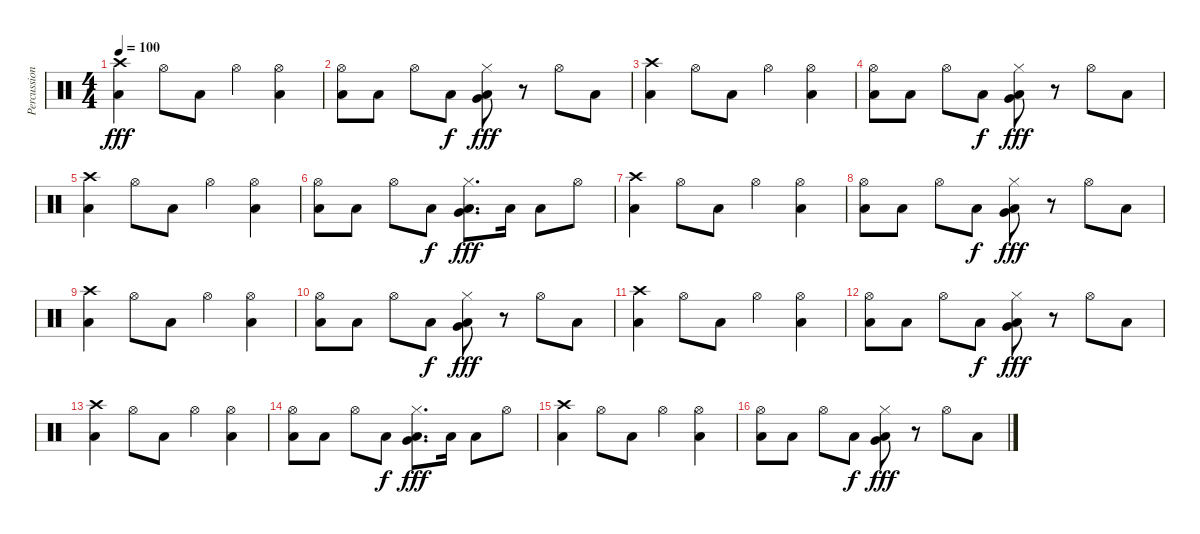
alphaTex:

\track ("Percussion" "Percussion") {instrument percussion}
\staff {score}
\articulation defaults
\ts (4 4)
\tempo 100
\clef neutral
\ks c
("Low Floor Tom (hit)" "Crash high (hit)").4{dy fff} "Hi-Hat (open)".8 "Low Tom (hit)".8 "Hi-Hat (open)".4 ("Low Floor Tom (hit)" "Hi-Hat (open)").4 |
("Low Tom (hit)" "Hi-Hat (open)").8 "Low Tom (hit)".8 "Hi-Hat (open)".8 "Low Floor Tom (hit)".8{dy f} ("Low Floor Tom (hit)" "Very Low Tom (hit)" "Hi-Hat (closed)").8{dy fff} r.8 "Hi-Hat (open)".8 "Low Tom (hit)".8 |
("Low Floor Tom (hit)" "Crash high (hit)").4 "Hi-Hat (open)".8 "Low Tom (hit)".8 "Hi-Hat (open)".4 ("Low Floor Tom (hit)" "Hi-Hat (open)").4 |
("Low Tom (hit)" "Hi-Hat (open)").8 "Low Tom (hit)".8 "Hi-Hat (open)".8 "Low Floor Tom (hit)".8{dy f} ("Low Floor Tom (hit)" "Very Low Tom (hit)" "Hi-Hat (closed)").8{dy fff} r.8 "Hi-Hat (open)".8 "Low Tom (hit)".8 |
("Low Floor Tom (hit)" "Crash high (hit)").4 "Hi-Hat (open)".8 "Low Tom (hit)".8 "Hi-Hat (open)".4 ("Low Floor Tom (hit)" "Hi-Hat (open)").4 |
("Low Tom (hit)" "Hi-Hat (open)").8 "Low Tom (hit)".8 "Hi-Hat (open)".8 "Low Floor Tom (hit)".8{dy f} ("Low Floor Tom (hit)" "Very Low Tom (hit)" "Hi-Hat (closed)").8{d dy fff} "Low Tom (hit)".16 "Low Tom (hit)".8 "Hi-Hat (open)".8 |
("Low Floor Tom (hit)" "Crash high (hit)").4 "Hi-Hat (open)".8 "Low Tom (hit)".8 "Hi-Hat (open)".4 ("Low Floor Tom (hit)" "Hi-Hat (open)").4 |
("Low Tom (hit)" "Hi-Hat (open)").8 "Low Tom (hit)".8 "Hi-Hat (open)".8 "Low Floor Tom (hit)".8{dy f} ("Low Floor Tom (hit)" "Very Low Tom (hit)" "Hi-Hat (closed)").8{dy fff} r.8 "Hi-Hat (open)".8 "Low Tom (hit)".8 |
("Low Floor Tom (hit)" "Crash high (hit)").4 "Hi-Hat (open)".8 "Low Tom (hit)".8 "Hi-Hat (open)".4 ("Low Floor Tom (hit)" "Hi-Hat (open)").4 |
("Low Tom (hit)" "Hi-Hat (open)").8 "Low Tom (hit)".8 "Hi-Hat (open)".8 "Low Floor Tom (hit)".8{dy f} ("Low Floor Tom (hit)" "Very Low Tom (hit)" "Hi-Hat (closed)").8{dy fff} r.8 "Hi-Hat (open)".8 "Low Tom (hit)".8 |
("Low Floor Tom (hit)" "Crash high (hit)").4 "Hi-Hat (open)".8 "Low Tom (hit)".8 "Hi-Hat (open)".4 ("Low Floor Tom (hit)" "Hi-Hat (open)").4 |
("Low Tom (hit)" "Hi-Hat (open)").8 "Low Tom (hit)".8 "Hi-Hat (open)".8 "Low Floor Tom (hit)".8{dy f} ("Low Floor Tom (hit)" "Very Low Tom (hit)" "Hi-Hat (closed)").8{dy fff} r.8 "Hi-Hat (open)".8 "Low Tom (hit)".8 |
("Low Floor Tom (hit)" "Crash high (hit)").4 "Hi-Hat (open)".8 "Low Tom (hit)".8 "Hi-Hat (open)".4 ("Low Floor Tom (hit)" "Hi-Hat (open)").4 |
("Low Tom (hit)" "Hi-Hat (open)").8 "Low Tom (hit)".8 "Hi-Hat (open)".8 "Low Floor Tom (hit)".8{dy f} ("Low Floor Tom (hit)" "Very Low Tom (hit)" "Hi-Hat (closed)").8{d dy fff} "Low Tom (hit)".16 "Low Tom (hit)".8 "Hi-Hat (open)".8 |
("Low Floor Tom (hit)" "Crash high (hit)").4 "Hi-Hat (open)".8 "Low Tom (hit)".8 "Hi-Hat (open)".4 ("Low Floor Tom (hit)" "Hi-Hat (open)").4 |
("Low Tom (hit)" "Hi-Hat (open)").8 "Low Tom (hit)".8 "Hi-Hat (open)".8 "Low Floor Tom (hit)".8{dy f} ("Low Floor Tom (hit)" "Very Low Tom (hit)" "Hi-Hat (closed)").8{dy fff} r.8 "Hi-Hat (open)".8 "Low Tom (hit)".8
